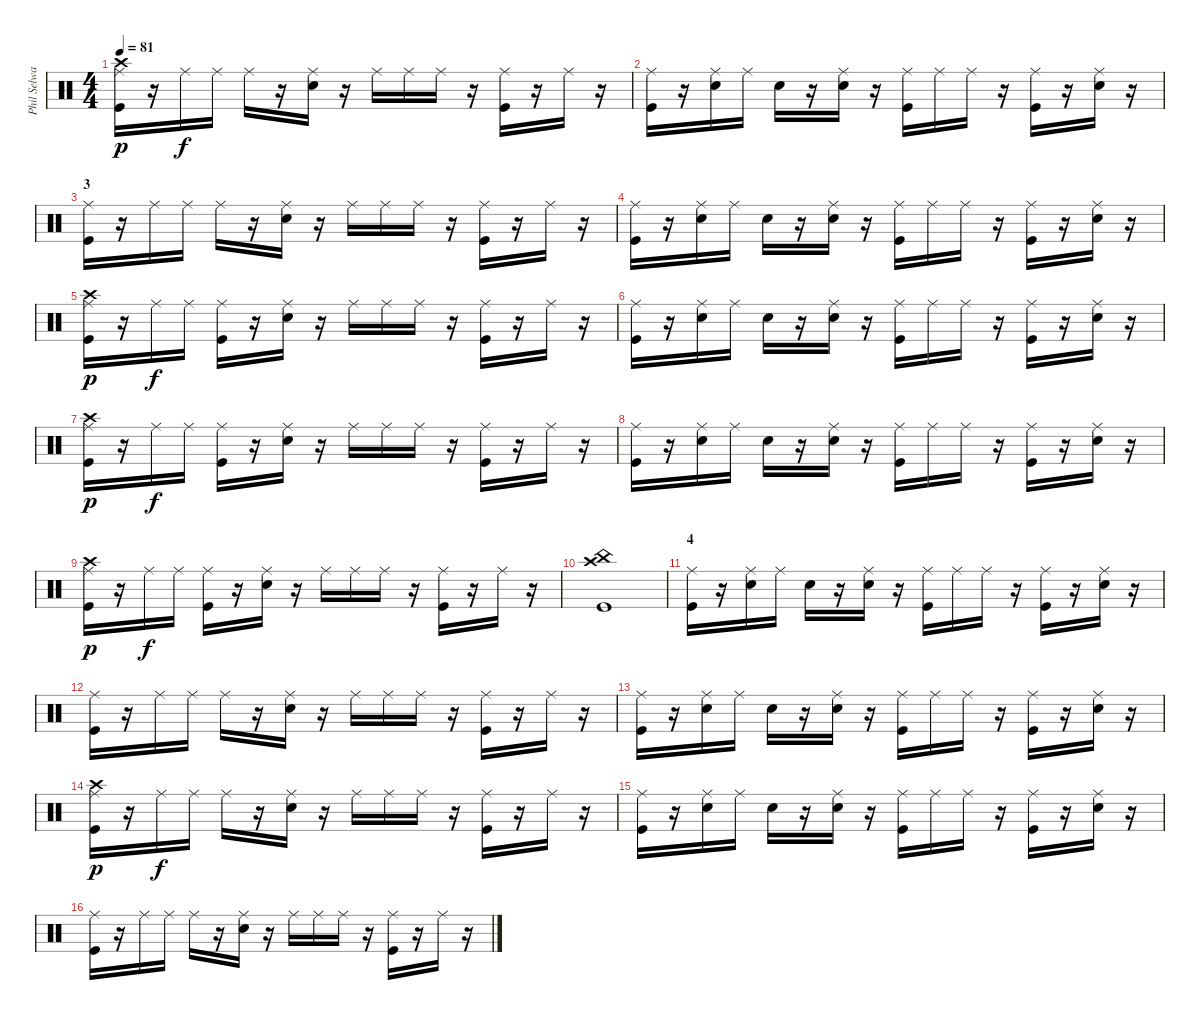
\track ("Phil Selway (Percussions)" "Phil Selwa") {instrument percussion}
\staff {score}
\articulation defaults
\ts (4 4)
\tempo 81
\clef neutral
\ks c
("Ride (middle)" "Crash high (hit)" "Kick (hit)").16{dy p} r.16 "Ride (middle)".16{dy f} "Ride (middle)".16 "Ride (middle)".16 r.16 ("Ride (middle)" "Electric Snare (hit)").16 r.16 "Ride (middle)".16 "Ride (middle)".16 "Ride (middle)".16 r.16 ("Ride (middle)" "Kick (hit)").16 r.16 "Ride (middle)".16 r.16 |
("Ride (middle)" "Kick (hit)").16 r.16 ("Ride (middle)" "Electric Snare (hit)").16 "Ride (middle)".16 "Snare (hit)".16 r.16 ("Ride (middle)" "Electric Snare (hit)").16 r.16 ("Ride (middle)" "Kick (hit)").16 "Ride (middle)".16 "Ride (middle)".16 r.16 ("Ride (middle)" "Kick (hit)").16 r.16 ("Ride (middle)" "Electric Snare (hit)").16 r.16 |
\section ("" "3")
("Ride (middle)" "Kick (hit)").16 r.16 "Ride (middle)".16 "Ride (middle)".16 "Ride (middle)".16 r.16 ("Ride (middle)" "Electric Snare (hit)").16 r.16 "Ride (middle)".16 "Ride (middle)".16 "Ride (middle)".16 r.16 ("Ride (middle)" "Kick (hit)").16 r.16 "Ride (middle)".16 r.16 |
("Ride (middle)" "Kick (hit)").16 r.16 ("Ride (middle)" "Electric Snare (hit)").16 "Ride (middle)".16 "Snare (hit)".16 r.16 ("Ride (middle)" "Electric Snare (hit)").16 r.16 ("Ride (middle)" "Kick (hit)").16 "Ride (middle)".16 "Ride (middle)".16 r.16 ("Ride (middle)" "Kick (hit)").16 r.16 ("Ride (middle)" "Electric Snare (hit)").16 r.16 |
("Ride (middle)" "Crash high (hit)" "Kick (hit)").16{dy p} r.16 "Ride (middle)".16{dy f} "Ride (middle)".16 ("Ride (middle)" "Kick (hit)").16 r.16 ("Ride (middle)" "Electric Snare (hit)").16 r.16 "Ride (middle)".16 "Ride (middle)".16 "Ride (middle)".16 r.16 ("Ride (middle)" "Kick (hit)").16 r.16 "Ride (middle)".16 r.16 |
("Ride (middle)" "Kick (hit)").16 r.16 ("Ride (middle)" "Electric Snare (hit)").16 "Ride (middle)".16 "Snare (hit)".16 r.16 ("Ride (middle)" "Electric Snare (hit)").16 r.16 ("Ride (middle)" "Kick (hit)").16 "Ride (middle)".16 "Ride (middle)".16 r.16 ("Ride (middle)" "Kick (hit)").16 r.16 ("Ride (middle)" "Electric Snare (hit)").16 r.16 |
("Ride (middle)" "Crash high (hit)" "Kick (hit)").16{dy p} r.16 "Ride (middle)".16{dy f} "Ride (middle)".16 ("Ride (middle)" "Kick (hit)").16 r.16 ("Ride (middle)" "Electric Snare (hit)").16 r.16 "Ride (middle)".16 "Ride (middle)".16 "Ride (middle)".16 r.16 ("Ride (middle)" "Kick (hit)").16 r.16 "Ride (middle)".16 r.16 |
("Ride (middle)" "Kick (hit)").16 r.16 ("Ride (middle)" "Electric Snare (hit)").16 "Ride (middle)".16 "Snare (hit)".16 r.16 ("Ride (middle)" "Electric Snare (hit)").16 r.16 ("Ride (middle)" "Kick (hit)").16 "Ride (middle)".16 "Ride (middle)".16 r.16 ("Ride (middle)" "Kick (hit)").16 r.16 ("Ride (middle)" "Electric Snare (hit)").16 r.16 |
("Ride (middle)" "Crash high (hit)" "Kick (hit)").16{dy p} r.16 "Ride (middle)".16{dy f} "Ride (middle)".16 ("Ride (middle)" "Kick (hit)").16 r.16 ("Ride (middle)" "Electric Snare (hit)").16 r.16 "Ride (middle)".16 "Ride (middle)".16 "Ride (middle)".16 r.16 ("Ride (middle)" "Kick (hit)").16 r.16 "Ride (middle)".16 r.16 |
("China (hit)" "Crash high (hit)" "Kick (hit)").1 |
\section ("" "4")
("Ride (middle)" "Kick (hit)").16 r.16 ("Ride (middle)" "Electric Snare (hit)").16 "Ride (middle)".16 "Snare (hit)".16 r.16 ("Ride (middle)" "Electric Snare (hit)").16 r.16 ("Ride (middle)" "Kick (hit)").16 "Ride (middle)".16 "Ride (middle)".16 r.16 ("Ride (middle)" "Kick (hit)").16 r.16 ("Ride (middle)" "Electric Snare (hit)").16 r.16 |
("Ride (middle)" "Kick (hit)").16 r.16 "Ride (middle)".16 "Ride (middle)".16 "Ride (middle)".16 r.16 ("Ride (middle)" "Electric Snare (hit)").16 r.16 "Ride (middle)".16 "Ride (middle)".16 "Ride (middle)".16 r.16 ("Ride (middle)" "Kick (hit)").16 r.16 "Ride (middle)".16 r.16 |
("Ride (middle)" "Kick (hit)").16 r.16 ("Ride (middle)" "Electric Snare (hit)").16 "Ride (middle)".16 "Snare (hit)".16 r.16 ("Ride (middle)" "Electric Snare (hit)").16 r.16 ("Ride (middle)" "Kick (hit)").16 "Ride (middle)".16 "Ride (middle)".16 r.16 ("Ride (middle)" "Kick (hit)").16 r.16 ("Ride (middle)" "Electric Snare (hit)").16 r.16 |
("Ride (middle)" "Crash high (hit)" "Kick (hit)").16{dy p} r.16 "Ride (middle)".16{dy f} "Ride (middle)".16 "Ride (middle)".16 r.16 ("Ride (middle)" "Electric Snare (hit)").16 r.16 "Ride (middle)".16 "Ride (middle)".16 "Ride (middle)".16 r.16 ("Ride (middle)" "Kick (hit)").16 r.16 "Ride (middle)".16 r.16 |
("Ride (middle)" "Kick (hit)").16 r.16 ("Ride (middle)" "Electric Snare (hit)").16 "Ride (middle)".16 "Snare (hit)".16 r.16 ("Ride (middle)" "Electric Snare (hit)").16 r.16 ("Ride (middle)" "Kick (hit)").16 "Ride (middle)".16 "Ride (middle)".16 r.16 ("Ride (middle)" "Kick (hit)").16 r.16 ("Ride (middle)" "Electric Snare (hit)").16 r.16 |
("Ride (middle)" "Kick (hit)").16 r.16 "Ride (middle)".16 "Ride (middle)".16 "Ride (middle)".16 r.16 ("Ride (middle)" "Electric Snare (hit)").16 r.16 "Ride (middle)".16 "Ride (middle)".16 "Ride (middle)".16 r.16 ("Ride (middle)" "Kick (hit)").16 r.16 "Ride (middle)".16 r.16
